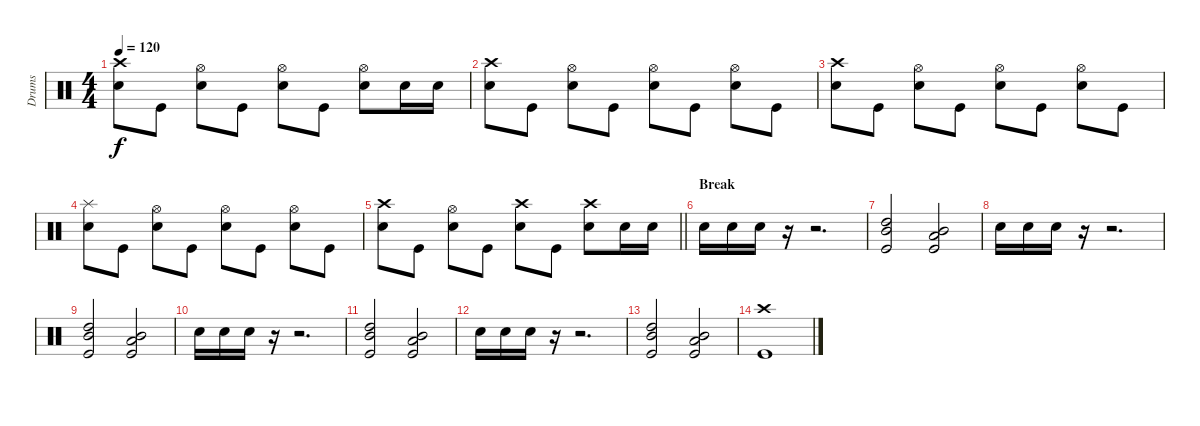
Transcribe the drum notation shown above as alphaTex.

\track ("Drums" "Drums") {instrument percussion}
\staff {score}
\articulation defaults
\ts (4 4)
\tempo 120
\clef neutral
\ks c
("Crash high (hit)" "Snare (hit) 2").8{dy f} "Kick (hit)".8 ("Hi-Hat (open)" "Snare (hit) 2").8 "Kick (hit)".8 ("Hi-Hat (open)" "Snare (hit) 2").8 "Kick (hit)".8 ("Hi-Hat (open)" "Snare (hit) 2").8 "Snare (hit) 2".16 "Snare (hit) 2".16 |
("Crash high (hit)" "Snare (hit) 2").8 "Kick (hit)".8 ("Hi-Hat (open)" "Snare (hit) 2").8 "Kick (hit)".8 ("Hi-Hat (open)" "Snare (hit) 2").8 "Kick (hit)".8 ("Hi-Hat (open)" "Snare (hit) 2").8 "Kick (hit)".8 |
("Crash high (hit)" "Snare (hit) 2").8 "Kick (hit)".8 ("Hi-Hat (open)" "Snare (hit) 2").8 "Kick (hit)".8 ("Hi-Hat (open)" "Snare (hit) 2").8 "Kick (hit)".8 ("Hi-Hat (open)" "Snare (hit) 2").8 "Kick (hit)".8 |
("Splash (hit)" "Snare (hit) 2").8 "Kick (hit)".8 ("Hi-Hat (open)" "Snare (hit) 2").8 "Kick (hit)".8 ("Hi-Hat (open)" "Snare (hit) 2").8 "Kick (hit)".8 ("Hi-Hat (open)" "Snare (hit) 2").8 "Kick (hit)".8 |
\barLineRight lightlight
("Crash high (hit)" "Snare (hit) 2").8 "Kick (hit)".8 ("Hi-Hat (open)" "Snare (hit) 2").8 "Kick (hit)".8 ("Crash high (hit)" "Snare (hit) 2").8 "Kick (hit)".8 ("Crash high (hit)" "Snare (hit) 2").8 "Snare (hit) 2".16 "Snare (hit) 2".16 |
\section ("" "Break")
"Snare (hit) 2".16 "Snare (hit) 2".16 "Snare (hit) 2".16 r.16 r.2{d} |
("High Tom (hit)" "Mid Tom (hit)" "Kick (hit)").2 ("Low Tom (hit)" "Mid Tom (hit)" "Kick (hit)").2 |
"Snare (hit) 2".16 "Snare (hit) 2".16 "Snare (hit) 2".16 r.16 r.2{d} |
("High Tom (hit)" "Mid Tom (hit)" "Kick (hit)").2 ("Low Tom (hit)" "Mid Tom (hit)" "Kick (hit)").2 |
"Snare (hit) 2".16 "Snare (hit) 2".16 "Snare (hit) 2".16 r.16 r.2{d} |
("High Tom (hit)" "Mid Tom (hit)" "Kick (hit)").2 ("Low Tom (hit)" "Mid Tom (hit)" "Kick (hit)").2 |
"Snare (hit) 2".16 "Snare (hit) 2".16 "Snare (hit) 2".16 r.16 r.2{d} |
("High Tom (hit)" "Mid Tom (hit)" "Kick (hit)").2 ("Low Tom (hit)" "Mid Tom (hit)" "Kick (hit)").2 |
("Crash high (hit)" "Kick (hit)").1
